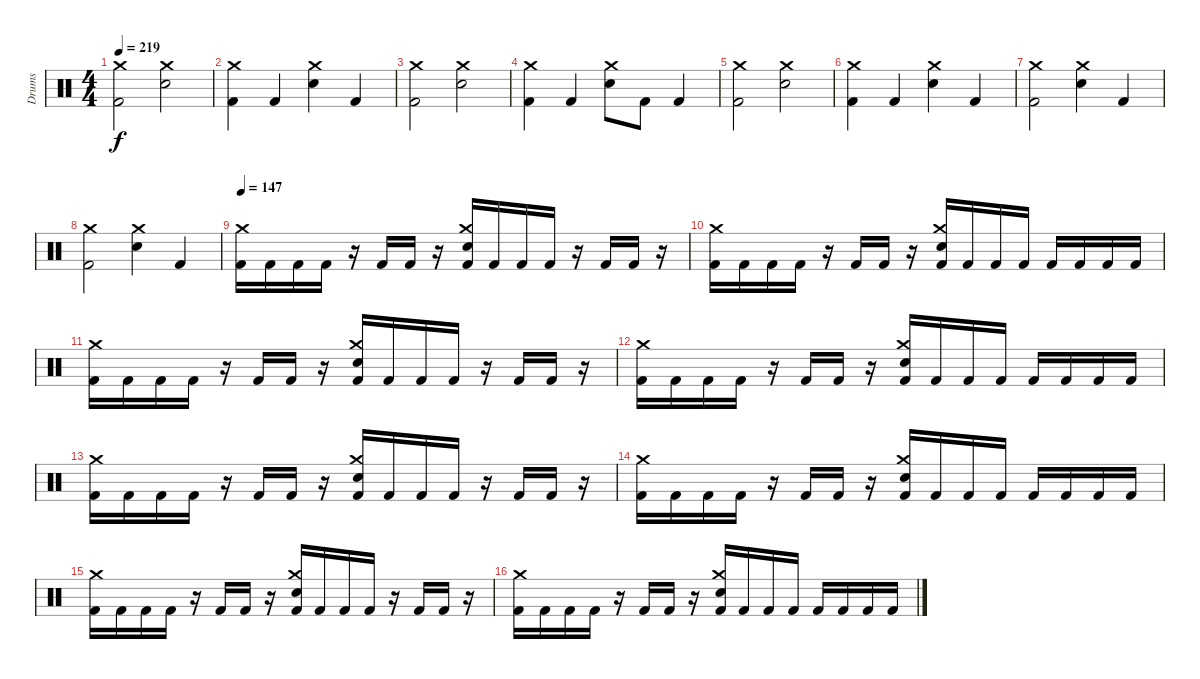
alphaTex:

\track ("Drums" "Drums") {instrument percussion}
\staff {score}
\articulation defaults
\ts (4 4)
\tempo 219
\clef neutral
\ks c
("Kick (hit) 2" "Crash medium (hit)").2{dy f} ("Snare (hit) 2" "Crash medium (hit)").2 |
("Kick (hit) 2" "Crash medium (hit)").4 "Kick (hit) 2".4 ("Snare (hit) 2" "Crash medium (hit)").4 "Kick (hit) 2".4 |
("Kick (hit) 2" "Crash medium (hit)").2 ("Snare (hit) 2" "Crash medium (hit)").2 |
("Kick (hit) 2" "Crash medium (hit)").4 "Kick (hit) 2".4 ("Snare (hit) 2" "Crash medium (hit)").8 "Kick (hit) 2".8 "Kick (hit) 2".4 |
("Kick (hit) 2" "Crash medium (hit)").2 ("Snare (hit) 2" "Crash medium (hit)").2 |
("Kick (hit) 2" "Crash medium (hit)").4 "Kick (hit) 2".4 ("Snare (hit) 2" "Crash medium (hit)").4 "Kick (hit) 2".4 |
("Kick (hit) 2" "Crash medium (hit)").2 ("Snare (hit) 2" "Crash medium (hit)").4 "Kick (hit) 2".4 |
("Kick (hit) 2" "Crash medium (hit)").2 ("Snare (hit) 2" "Crash medium (hit)").4 "Kick (hit) 2".4 |
\tempo 147
("Kick (hit) 2" "Crash medium (hit)").16 "Kick (hit) 2".16 "Kick (hit) 2".16 "Kick (hit) 2".16 r.16 "Kick (hit) 2".16 "Kick (hit) 2".16 r.16 ("Kick (hit) 2" "Snare (hit) 2" "Crash medium (hit)").16 "Kick (hit) 2".16 "Kick (hit) 2".16 "Kick (hit) 2".16 r.16 "Kick (hit) 2".16 "Kick (hit) 2".16 r.16 |
("Kick (hit) 2" "Crash medium (hit)").16 "Kick (hit) 2".16 "Kick (hit) 2".16 "Kick (hit) 2".16 r.16 "Kick (hit) 2".16 "Kick (hit) 2".16 r.16 ("Kick (hit) 2" "Snare (hit) 2" "Crash medium (hit)").16 "Kick (hit) 2".16 "Kick (hit) 2".16 "Kick (hit) 2".16 "Kick (hit) 2".16 "Kick (hit) 2".16 "Kick (hit) 2".16 "Kick (hit) 2".16 |
("Kick (hit) 2" "Crash medium (hit)").16 "Kick (hit) 2".16 "Kick (hit) 2".16 "Kick (hit) 2".16 r.16 "Kick (hit) 2".16 "Kick (hit) 2".16 r.16 ("Kick (hit) 2" "Snare (hit) 2" "Crash medium (hit)").16 "Kick (hit) 2".16 "Kick (hit) 2".16 "Kick (hit) 2".16 r.16 "Kick (hit) 2".16 "Kick (hit) 2".16 r.16 |
("Kick (hit) 2" "Crash medium (hit)").16 "Kick (hit) 2".16 "Kick (hit) 2".16 "Kick (hit) 2".16 r.16 "Kick (hit) 2".16 "Kick (hit) 2".16 r.16 ("Kick (hit) 2" "Snare (hit) 2" "Crash medium (hit)").16 "Kick (hit) 2".16 "Kick (hit) 2".16 "Kick (hit) 2".16 "Kick (hit) 2".16 "Kick (hit) 2".16 "Kick (hit) 2".16 "Kick (hit) 2".16 |
("Kick (hit) 2" "Crash medium (hit)").16 "Kick (hit) 2".16 "Kick (hit) 2".16 "Kick (hit) 2".16 r.16 "Kick (hit) 2".16 "Kick (hit) 2".16 r.16 ("Kick (hit) 2" "Snare (hit) 2" "Crash medium (hit)").16 "Kick (hit) 2".16 "Kick (hit) 2".16 "Kick (hit) 2".16 r.16 "Kick (hit) 2".16 "Kick (hit) 2".16 r.16 |
("Kick (hit) 2" "Crash medium (hit)").16 "Kick (hit) 2".16 "Kick (hit) 2".16 "Kick (hit) 2".16 r.16 "Kick (hit) 2".16 "Kick (hit) 2".16 r.16 ("Kick (hit) 2" "Snare (hit) 2" "Crash medium (hit)").16 "Kick (hit) 2".16 "Kick (hit) 2".16 "Kick (hit) 2".16 "Kick (hit) 2".16 "Kick (hit) 2".16 "Kick (hit) 2".16 "Kick (hit) 2".16 |
("Kick (hit) 2" "Crash medium (hit)").16 "Kick (hit) 2".16 "Kick (hit) 2".16 "Kick (hit) 2".16 r.16 "Kick (hit) 2".16 "Kick (hit) 2".16 r.16 ("Kick (hit) 2" "Snare (hit) 2" "Crash medium (hit)").16 "Kick (hit) 2".16 "Kick (hit) 2".16 "Kick (hit) 2".16 r.16 "Kick (hit) 2".16 "Kick (hit) 2".16 r.16 |
("Kick (hit) 2" "Crash medium (hit)").16 "Kick (hit) 2".16 "Kick (hit) 2".16 "Kick (hit) 2".16 r.16 "Kick (hit) 2".16 "Kick (hit) 2".16 r.16 ("Kick (hit) 2" "Snare (hit) 2" "Crash medium (hit)").16 "Kick (hit) 2".16 "Kick (hit) 2".16 "Kick (hit) 2".16 "Kick (hit) 2".16 "Kick (hit) 2".16 "Kick (hit) 2".16 "Kick (hit) 2".16
